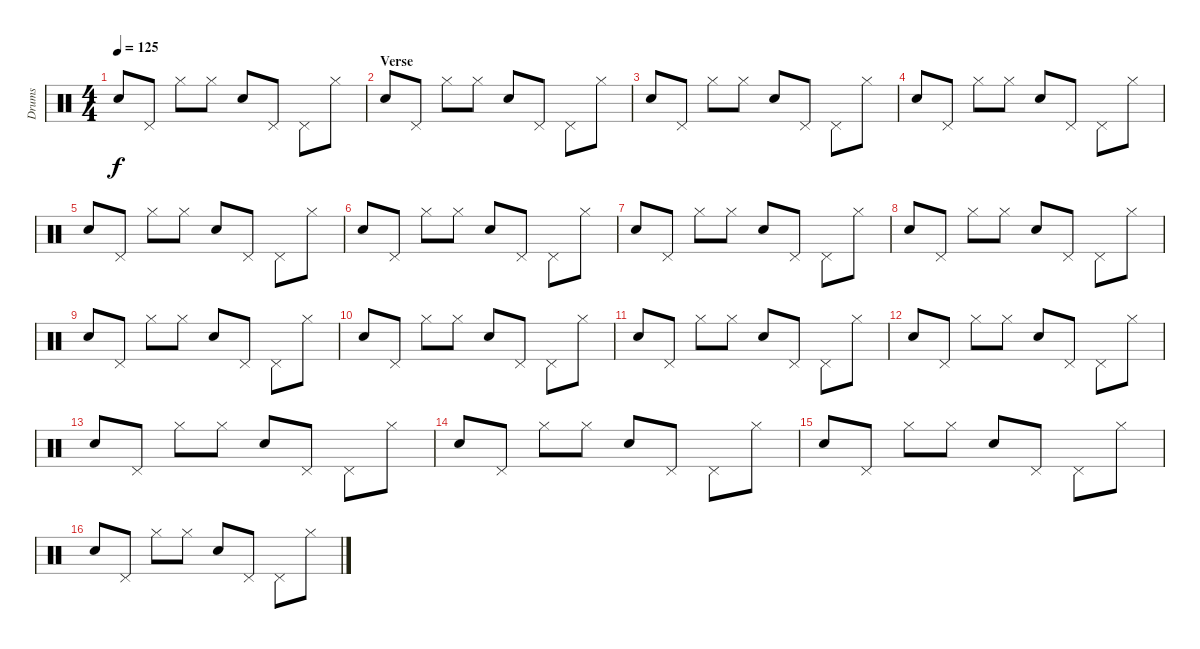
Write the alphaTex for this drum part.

\track ("Drums" "Drums") {instrument percussion}
\staff {score}
\articulation defaults
\ts (4 4)
\tempo 125
\clef neutral
\ks c "Electric Snare (hit)".8{dy f} "Pedal Hi-Hat (hit)".8 "Hi-Hat (closed)".8 "Hi-Hat (closed)".8 "Electric Snare (hit)".8 "Pedal Hi-Hat (hit)".8 "Pedal Hi-Hat (hit)".8 "Hi-Hat (closed)".8
|
\section ("" "Verse")
"Electric Snare (hit)".8 "Pedal Hi-Hat (hit)".8 "Hi-Hat (closed)".8 "Hi-Hat (closed)".8 "Electric Snare (hit)".8 "Pedal Hi-Hat (hit)".8 "Pedal Hi-Hat (hit)".8 "Hi-Hat (closed)".8 |
"Electric Snare (hit)".8 "Pedal Hi-Hat (hit)".8 "Hi-Hat (closed)".8 "Hi-Hat (closed)".8 "Electric Snare (hit)".8 "Pedal Hi-Hat (hit)".8 "Pedal Hi-Hat (hit)".8 "Hi-Hat (closed)".8 |
"Electric Snare (hit)".8 "Pedal Hi-Hat (hit)".8 "Hi-Hat (closed)".8 "Hi-Hat (closed)".8 "Electric Snare (hit)".8 "Pedal Hi-Hat (hit)".8 "Pedal Hi-Hat (hit)".8 "Hi-Hat (closed)".8 |
"Electric Snare (hit)".8 "Pedal Hi-Hat (hit)".8 "Hi-Hat (closed)".8 "Hi-Hat (closed)".8 "Electric Snare (hit)".8 "Pedal Hi-Hat (hit)".8 "Pedal Hi-Hat (hit)".8 "Hi-Hat (closed)".8 |
"Electric Snare (hit)".8 "Pedal Hi-Hat (hit)".8 "Hi-Hat (closed)".8 "Hi-Hat (closed)".8 "Electric Snare (hit)".8 "Pedal Hi-Hat (hit)".8 "Pedal Hi-Hat (hit)".8 "Hi-Hat (closed)".8 |
"Electric Snare (hit)".8 "Pedal Hi-Hat (hit)".8 "Hi-Hat (closed)".8 "Hi-Hat (closed)".8 "Electric Snare (hit)".8 "Pedal Hi-Hat (hit)".8 "Pedal Hi-Hat (hit)".8 "Hi-Hat (closed)".8 |
"Electric Snare (hit)".8 "Pedal Hi-Hat (hit)".8 "Hi-Hat (closed)".8 "Hi-Hat (closed)".8 "Electric Snare (hit)".8 "Pedal Hi-Hat (hit)".8 "Pedal Hi-Hat (hit)".8 "Hi-Hat (closed)".8 |
"Electric Snare (hit)".8 "Pedal Hi-Hat (hit)".8 "Hi-Hat (closed)".8 "Hi-Hat (closed)".8 "Electric Snare (hit)".8 "Pedal Hi-Hat (hit)".8 "Pedal Hi-Hat (hit)".8 "Hi-Hat (closed)".8 |
"Electric Snare (hit)".8 "Pedal Hi-Hat (hit)".8 "Hi-Hat (closed)".8 "Hi-Hat (closed)".8 "Electric Snare (hit)".8 "Pedal Hi-Hat (hit)".8 "Pedal Hi-Hat (hit)".8 "Hi-Hat (closed)".8 |
"Electric Snare (hit)".8 "Pedal Hi-Hat (hit)".8 "Hi-Hat (closed)".8 "Hi-Hat (closed)".8 "Electric Snare (hit)".8 "Pedal Hi-Hat (hit)".8 "Pedal Hi-Hat (hit)".8 "Hi-Hat (closed)".8 |
"Electric Snare (hit)".8 "Pedal Hi-Hat (hit)".8 "Hi-Hat (closed)".8 "Hi-Hat (closed)".8 "Electric Snare (hit)".8 "Pedal Hi-Hat (hit)".8 "Pedal Hi-Hat (hit)".8 "Hi-Hat (closed)".8 |
"Electric Snare (hit)".8 "Pedal Hi-Hat (hit)".8 "Hi-Hat (closed)".8 "Hi-Hat (closed)".8 "Electric Snare (hit)".8 "Pedal Hi-Hat (hit)".8 "Pedal Hi-Hat (hit)".8 "Hi-Hat (closed)".8 |
"Electric Snare (hit)".8 "Pedal Hi-Hat (hit)".8 "Hi-Hat (closed)".8 "Hi-Hat (closed)".8 "Electric Snare (hit)".8 "Pedal Hi-Hat (hit)".8 "Pedal Hi-Hat (hit)".8 "Hi-Hat (closed)".8 |
"Electric Snare (hit)".8 "Pedal Hi-Hat (hit)".8 "Hi-Hat (closed)".8 "Hi-Hat (closed)".8 "Electric Snare (hit)".8 "Pedal Hi-Hat (hit)".8 "Pedal Hi-Hat (hit)".8 "Hi-Hat (closed)".8 |
"Electric Snare (hit)".8 "Pedal Hi-Hat (hit)".8 "Hi-Hat (closed)".8 "Hi-Hat (closed)".8 "Electric Snare (hit)".8 "Pedal Hi-Hat (hit)".8 "Pedal Hi-Hat (hit)".8 "Hi-Hat (closed)".8
